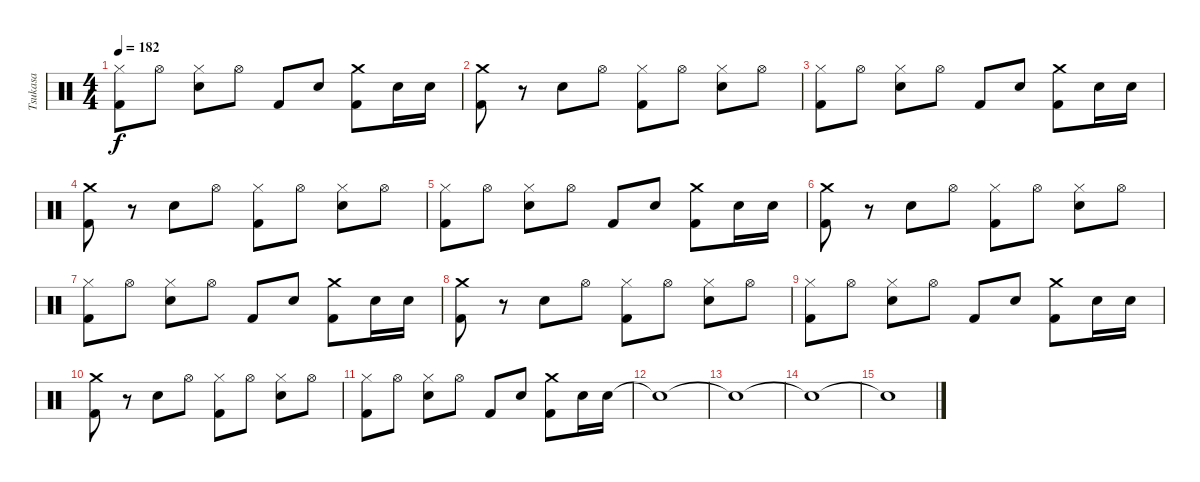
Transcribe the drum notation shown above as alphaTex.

\track ("Tsukasa" "Tsukasa") {instrument percussion}
\staff {score}
\articulation defaults
\ts (4 4)
\tempo 182
\clef neutral
\ks c
("Kick (hit) 2" "Hi-Hat (closed)").8{dy f} "Hi-Hat (open)".8 ("Electric Snare (hit)" "Hi-Hat (closed)").8 "Hi-Hat (open)".8 "Kick (hit) 2".8 "Electric Snare (hit)".8 ("Kick (hit) 2" "Crash medium (hit)").8 "Electric Snare (hit)".16 "Electric Snare (hit)".16 |
("Kick (hit) 2" "Crash medium (hit)").8 r.8 "Electric Snare (hit)".8 "Hi-Hat (open)".8 ("Kick (hit) 2" "Hi-Hat (closed)").8 "Hi-Hat (open)".8 ("Electric Snare (hit)" "Hi-Hat (closed)").8 "Hi-Hat (open)".8 |
("Kick (hit) 2" "Hi-Hat (closed)").8 "Hi-Hat (open)".8 ("Electric Snare (hit)" "Hi-Hat (closed)").8 "Hi-Hat (open)".8 "Kick (hit) 2".8 "Electric Snare (hit)".8 ("Kick (hit) 2" "Crash medium (hit)").8 "Electric Snare (hit)".16 "Electric Snare (hit)".16 |
("Kick (hit) 2" "Crash medium (hit)").8 r.8 "Electric Snare (hit)".8 "Hi-Hat (open)".8 ("Kick (hit) 2" "Hi-Hat (closed)").8 "Hi-Hat (open)".8 ("Electric Snare (hit)" "Hi-Hat (closed)").8 "Hi-Hat (open)".8 |
("Kick (hit) 2" "Hi-Hat (closed)").8 "Hi-Hat (open)".8 ("Electric Snare (hit)" "Hi-Hat (closed)").8 "Hi-Hat (open)".8 "Kick (hit) 2".8 "Electric Snare (hit)".8 ("Kick (hit) 2" "Crash medium (hit)").8 "Electric Snare (hit)".16 "Electric Snare (hit)".16 |
("Kick (hit) 2" "Crash medium (hit)").8 r.8 "Electric Snare (hit)".8 "Hi-Hat (open)".8 ("Kick (hit) 2" "Hi-Hat (closed)").8 "Hi-Hat (open)".8 ("Electric Snare (hit)" "Hi-Hat (closed)").8 "Hi-Hat (open)".8 |
("Kick (hit) 2" "Hi-Hat (closed)").8 "Hi-Hat (open)".8 ("Electric Snare (hit)" "Hi-Hat (closed)").8 "Hi-Hat (open)".8 "Kick (hit) 2".8 "Electric Snare (hit)".8 ("Kick (hit) 2" "Crash medium (hit)").8 "Electric Snare (hit)".16 "Electric Snare (hit)".16 |
("Kick (hit) 2" "Crash medium (hit)").8 r.8 "Electric Snare (hit)".8 "Hi-Hat (open)".8 ("Kick (hit) 2" "Hi-Hat (closed)").8 "Hi-Hat (open)".8 ("Electric Snare (hit)" "Hi-Hat (closed)").8 "Hi-Hat (open)".8 |
("Kick (hit) 2" "Hi-Hat (closed)").8 "Hi-Hat (open)".8 ("Electric Snare (hit)" "Hi-Hat (closed)").8 "Hi-Hat (open)".8 "Kick (hit) 2".8 "Electric Snare (hit)".8 ("Kick (hit) 2" "Crash medium (hit)").8 "Electric Snare (hit)".16 "Electric Snare (hit)".16 |
("Kick (hit) 2" "Crash medium (hit)").8 r.8 "Electric Snare (hit)".8 "Hi-Hat (open)".8 ("Kick (hit) 2" "Hi-Hat (closed)").8 "Hi-Hat (open)".8 ("Electric Snare (hit)" "Hi-Hat (closed)").8 "Hi-Hat (open)".8 |
("Kick (hit) 2" "Hi-Hat (closed)").8 "Hi-Hat (open)".8 ("Electric Snare (hit)" "Hi-Hat (closed)").8 "Hi-Hat (open)".8 "Kick (hit) 2".8 "Electric Snare (hit)".8 ("Kick (hit) 2" "Crash medium (hit)").8 "Electric Snare (hit)".16 "Electric Snare (hit)".16 |
"Snare (hit)"{t}.1 |
"Snare (hit)"{t}.1 |
"Snare (hit)"{t}.1 |
"Snare (hit)"{t}.1
